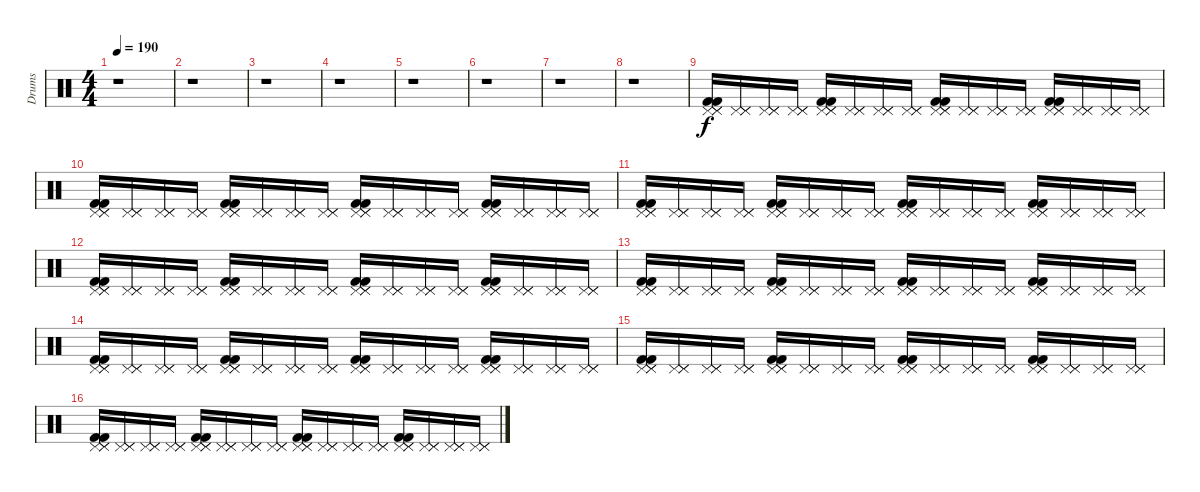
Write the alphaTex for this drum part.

\track ("Drums" "Drums") {instrument percussion}
\staff {score}
\articulation defaults
\ts (4 4)
\tempo 190
\clef neutral
\ks c
r.1{dy f volume 16} |
r.1 |
r.1 |
r.1 |
r.1 |
r.1 |
r.1 |
r.1 |
("Pedal Hi-Hat (hit)" "Pedal Hi-Hat (hit)" "Pedal Hi-Hat (hit)" "Kick (hit) 2" "Kick (hit) 2").16 ("Pedal Hi-Hat (hit)" "Pedal Hi-Hat (hit)" "Pedal Hi-Hat (hit)").16 ("Pedal Hi-Hat (hit)" "Pedal Hi-Hat (hit)" "Pedal Hi-Hat (hit)").16 ("Pedal Hi-Hat (hit)" "Pedal Hi-Hat (hit)" "Pedal Hi-Hat (hit)").16 ("Pedal Hi-Hat (hit)" "Pedal Hi-Hat (hit)" "Pedal Hi-Hat (hit)" "Kick (hit) 2" "Kick (hit) 2").16 ("Pedal Hi-Hat (hit)" "Pedal Hi-Hat (hit)" "Pedal Hi-Hat (hit)").16 ("Pedal Hi-Hat (hit)" "Pedal Hi-Hat (hit)" "Pedal Hi-Hat (hit)").16 ("Pedal Hi-Hat (hit)" "Pedal Hi-Hat (hit)" "Pedal Hi-Hat (hit)").16 ("Pedal Hi-Hat (hit)" "Pedal Hi-Hat (hit)" "Pedal Hi-Hat (hit)" "Kick (hit) 2" "Kick (hit) 2").16 ("Pedal Hi-Hat (hit)" "Pedal Hi-Hat (hit)" "Pedal Hi-Hat (hit)").16 ("Pedal Hi-Hat (hit)" "Pedal Hi-Hat (hit)" "Pedal Hi-Hat (hit)").16 ("Pedal Hi-Hat (hit)" "Pedal Hi-Hat (hit)" "Pedal Hi-Hat (hit)").16 ("Pedal Hi-Hat (hit)" "Pedal Hi-Hat (hit)" "Pedal Hi-Hat (hit)" "Kick (hit) 2" "Kick (hit) 2").16 ("Pedal Hi-Hat (hit)" "Pedal Hi-Hat (hit)" "Pedal Hi-Hat (hit)").16 ("Pedal Hi-Hat (hit)" "Pedal Hi-Hat (hit)" "Pedal Hi-Hat (hit)").16 ("Pedal Hi-Hat (hit)" "Pedal Hi-Hat (hit)" "Pedal Hi-Hat (hit)").16 |
("Pedal Hi-Hat (hit)" "Pedal Hi-Hat (hit)" "Pedal Hi-Hat (hit)" "Kick (hit) 2" "Kick (hit) 2").16 ("Pedal Hi-Hat (hit)" "Pedal Hi-Hat (hit)" "Pedal Hi-Hat (hit)").16 ("Pedal Hi-Hat (hit)" "Pedal Hi-Hat (hit)" "Pedal Hi-Hat (hit)").16 ("Pedal Hi-Hat (hit)" "Pedal Hi-Hat (hit)" "Pedal Hi-Hat (hit)").16 ("Pedal Hi-Hat (hit)" "Pedal Hi-Hat (hit)" "Pedal Hi-Hat (hit)" "Kick (hit) 2" "Kick (hit) 2").16 ("Pedal Hi-Hat (hit)" "Pedal Hi-Hat (hit)" "Pedal Hi-Hat (hit)").16 ("Pedal Hi-Hat (hit)" "Pedal Hi-Hat (hit)" "Pedal Hi-Hat (hit)").16 ("Pedal Hi-Hat (hit)" "Pedal Hi-Hat (hit)" "Pedal Hi-Hat (hit)").16 ("Pedal Hi-Hat (hit)" "Pedal Hi-Hat (hit)" "Pedal Hi-Hat (hit)" "Kick (hit) 2" "Kick (hit) 2").16 ("Pedal Hi-Hat (hit)" "Pedal Hi-Hat (hit)" "Pedal Hi-Hat (hit)").16 ("Pedal Hi-Hat (hit)" "Pedal Hi-Hat (hit)" "Pedal Hi-Hat (hit)").16 ("Pedal Hi-Hat (hit)" "Pedal Hi-Hat (hit)" "Pedal Hi-Hat (hit)").16 ("Pedal Hi-Hat (hit)" "Pedal Hi-Hat (hit)" "Pedal Hi-Hat (hit)" "Kick (hit) 2" "Kick (hit) 2").16 ("Pedal Hi-Hat (hit)" "Pedal Hi-Hat (hit)" "Pedal Hi-Hat (hit)").16 ("Pedal Hi-Hat (hit)" "Pedal Hi-Hat (hit)" "Pedal Hi-Hat (hit)").16 ("Pedal Hi-Hat (hit)" "Pedal Hi-Hat (hit)" "Pedal Hi-Hat (hit)").16 |
("Pedal Hi-Hat (hit)" "Pedal Hi-Hat (hit)" "Pedal Hi-Hat (hit)" "Kick (hit) 2" "Kick (hit) 2").16 ("Pedal Hi-Hat (hit)" "Pedal Hi-Hat (hit)" "Pedal Hi-Hat (hit)").16 ("Pedal Hi-Hat (hit)" "Pedal Hi-Hat (hit)" "Pedal Hi-Hat (hit)").16 ("Pedal Hi-Hat (hit)" "Pedal Hi-Hat (hit)" "Pedal Hi-Hat (hit)").16 ("Pedal Hi-Hat (hit)" "Pedal Hi-Hat (hit)" "Pedal Hi-Hat (hit)" "Kick (hit) 2" "Kick (hit) 2").16 ("Pedal Hi-Hat (hit)" "Pedal Hi-Hat (hit)" "Pedal Hi-Hat (hit)").16 ("Pedal Hi-Hat (hit)" "Pedal Hi-Hat (hit)" "Pedal Hi-Hat (hit)").16 ("Pedal Hi-Hat (hit)" "Pedal Hi-Hat (hit)" "Pedal Hi-Hat (hit)").16 ("Pedal Hi-Hat (hit)" "Pedal Hi-Hat (hit)" "Pedal Hi-Hat (hit)" "Kick (hit) 2" "Kick (hit) 2").16 ("Pedal Hi-Hat (hit)" "Pedal Hi-Hat (hit)" "Pedal Hi-Hat (hit)").16 ("Pedal Hi-Hat (hit)" "Pedal Hi-Hat (hit)" "Pedal Hi-Hat (hit)").16 ("Pedal Hi-Hat (hit)" "Pedal Hi-Hat (hit)" "Pedal Hi-Hat (hit)").16 ("Pedal Hi-Hat (hit)" "Pedal Hi-Hat (hit)" "Pedal Hi-Hat (hit)" "Kick (hit) 2" "Kick (hit) 2").16 ("Pedal Hi-Hat (hit)" "Pedal Hi-Hat (hit)" "Pedal Hi-Hat (hit)").16 ("Pedal Hi-Hat (hit)" "Pedal Hi-Hat (hit)" "Pedal Hi-Hat (hit)").16 ("Pedal Hi-Hat (hit)" "Pedal Hi-Hat (hit)" "Pedal Hi-Hat (hit)").16 |
("Pedal Hi-Hat (hit)" "Pedal Hi-Hat (hit)" "Pedal Hi-Hat (hit)" "Kick (hit) 2" "Kick (hit) 2").16 ("Pedal Hi-Hat (hit)" "Pedal Hi-Hat (hit)" "Pedal Hi-Hat (hit)").16 ("Pedal Hi-Hat (hit)" "Pedal Hi-Hat (hit)" "Pedal Hi-Hat (hit)").16 ("Pedal Hi-Hat (hit)" "Pedal Hi-Hat (hit)" "Pedal Hi-Hat (hit)").16 ("Pedal Hi-Hat (hit)" "Pedal Hi-Hat (hit)" "Pedal Hi-Hat (hit)" "Kick (hit) 2" "Kick (hit) 2").16 ("Pedal Hi-Hat (hit)" "Pedal Hi-Hat (hit)" "Pedal Hi-Hat (hit)").16 ("Pedal Hi-Hat (hit)" "Pedal Hi-Hat (hit)" "Pedal Hi-Hat (hit)").16 ("Pedal Hi-Hat (hit)" "Pedal Hi-Hat (hit)" "Pedal Hi-Hat (hit)").16 ("Pedal Hi-Hat (hit)" "Pedal Hi-Hat (hit)" "Pedal Hi-Hat (hit)" "Kick (hit) 2" "Kick (hit) 2").16 ("Pedal Hi-Hat (hit)" "Pedal Hi-Hat (hit)" "Pedal Hi-Hat (hit)").16 ("Pedal Hi-Hat (hit)" "Pedal Hi-Hat (hit)" "Pedal Hi-Hat (hit)").16 ("Pedal Hi-Hat (hit)" "Pedal Hi-Hat (hit)" "Pedal Hi-Hat (hit)").16 ("Pedal Hi-Hat (hit)" "Pedal Hi-Hat (hit)" "Pedal Hi-Hat (hit)" "Kick (hit) 2" "Kick (hit) 2").16 ("Pedal Hi-Hat (hit)" "Pedal Hi-Hat (hit)" "Pedal Hi-Hat (hit)").16 ("Pedal Hi-Hat (hit)" "Pedal Hi-Hat (hit)" "Pedal Hi-Hat (hit)").16 ("Pedal Hi-Hat (hit)" "Pedal Hi-Hat (hit)" "Pedal Hi-Hat (hit)").16 |
("Pedal Hi-Hat (hit)" "Pedal Hi-Hat (hit)" "Pedal Hi-Hat (hit)" "Kick (hit) 2" "Kick (hit) 2").16 ("Pedal Hi-Hat (hit)" "Pedal Hi-Hat (hit)" "Pedal Hi-Hat (hit)").16 ("Pedal Hi-Hat (hit)" "Pedal Hi-Hat (hit)" "Pedal Hi-Hat (hit)").16 ("Pedal Hi-Hat (hit)" "Pedal Hi-Hat (hit)" "Pedal Hi-Hat (hit)").16 ("Pedal Hi-Hat (hit)" "Pedal Hi-Hat (hit)" "Pedal Hi-Hat (hit)" "Kick (hit) 2" "Kick (hit) 2").16 ("Pedal Hi-Hat (hit)" "Pedal Hi-Hat (hit)" "Pedal Hi-Hat (hit)").16 ("Pedal Hi-Hat (hit)" "Pedal Hi-Hat (hit)" "Pedal Hi-Hat (hit)").16 ("Pedal Hi-Hat (hit)" "Pedal Hi-Hat (hit)" "Pedal Hi-Hat (hit)").16 ("Pedal Hi-Hat (hit)" "Pedal Hi-Hat (hit)" "Pedal Hi-Hat (hit)" "Kick (hit) 2" "Kick (hit) 2").16 ("Pedal Hi-Hat (hit)" "Pedal Hi-Hat (hit)" "Pedal Hi-Hat (hit)").16 ("Pedal Hi-Hat (hit)" "Pedal Hi-Hat (hit)" "Pedal Hi-Hat (hit)").16 ("Pedal Hi-Hat (hit)" "Pedal Hi-Hat (hit)" "Pedal Hi-Hat (hit)").16 ("Pedal Hi-Hat (hit)" "Pedal Hi-Hat (hit)" "Pedal Hi-Hat (hit)" "Kick (hit) 2" "Kick (hit) 2").16 ("Pedal Hi-Hat (hit)" "Pedal Hi-Hat (hit)" "Pedal Hi-Hat (hit)").16 ("Pedal Hi-Hat (hit)" "Pedal Hi-Hat (hit)" "Pedal Hi-Hat (hit)").16 ("Pedal Hi-Hat (hit)" "Pedal Hi-Hat (hit)" "Pedal Hi-Hat (hit)").16 |
("Pedal Hi-Hat (hit)" "Pedal Hi-Hat (hit)" "Pedal Hi-Hat (hit)" "Kick (hit) 2" "Kick (hit) 2").16 ("Pedal Hi-Hat (hit)" "Pedal Hi-Hat (hit)" "Pedal Hi-Hat (hit)").16 ("Pedal Hi-Hat (hit)" "Pedal Hi-Hat (hit)" "Pedal Hi-Hat (hit)").16 ("Pedal Hi-Hat (hit)" "Pedal Hi-Hat (hit)" "Pedal Hi-Hat (hit)").16 ("Pedal Hi-Hat (hit)" "Pedal Hi-Hat (hit)" "Pedal Hi-Hat (hit)" "Kick (hit) 2" "Kick (hit) 2").16 ("Pedal Hi-Hat (hit)" "Pedal Hi-Hat (hit)" "Pedal Hi-Hat (hit)").16 ("Pedal Hi-Hat (hit)" "Pedal Hi-Hat (hit)" "Pedal Hi-Hat (hit)").16 ("Pedal Hi-Hat (hit)" "Pedal Hi-Hat (hit)" "Pedal Hi-Hat (hit)").16 ("Pedal Hi-Hat (hit)" "Pedal Hi-Hat (hit)" "Pedal Hi-Hat (hit)" "Kick (hit) 2" "Kick (hit) 2").16 ("Pedal Hi-Hat (hit)" "Pedal Hi-Hat (hit)" "Pedal Hi-Hat (hit)").16 ("Pedal Hi-Hat (hit)" "Pedal Hi-Hat (hit)" "Pedal Hi-Hat (hit)").16 ("Pedal Hi-Hat (hit)" "Pedal Hi-Hat (hit)" "Pedal Hi-Hat (hit)").16 ("Pedal Hi-Hat (hit)" "Pedal Hi-Hat (hit)" "Pedal Hi-Hat (hit)" "Kick (hit) 2" "Kick (hit) 2").16 ("Pedal Hi-Hat (hit)" "Pedal Hi-Hat (hit)" "Pedal Hi-Hat (hit)").16 ("Pedal Hi-Hat (hit)" "Pedal Hi-Hat (hit)" "Pedal Hi-Hat (hit)").16 ("Pedal Hi-Hat (hit)" "Pedal Hi-Hat (hit)" "Pedal Hi-Hat (hit)").16 |
("Pedal Hi-Hat (hit)" "Pedal Hi-Hat (hit)" "Pedal Hi-Hat (hit)" "Kick (hit) 2" "Kick (hit) 2").16 ("Pedal Hi-Hat (hit)" "Pedal Hi-Hat (hit)" "Pedal Hi-Hat (hit)").16 ("Pedal Hi-Hat (hit)" "Pedal Hi-Hat (hit)" "Pedal Hi-Hat (hit)").16 ("Pedal Hi-Hat (hit)" "Pedal Hi-Hat (hit)" "Pedal Hi-Hat (hit)").16 ("Pedal Hi-Hat (hit)" "Pedal Hi-Hat (hit)" "Pedal Hi-Hat (hit)" "Kick (hit) 2" "Kick (hit) 2").16 ("Pedal Hi-Hat (hit)" "Pedal Hi-Hat (hit)" "Pedal Hi-Hat (hit)").16 ("Pedal Hi-Hat (hit)" "Pedal Hi-Hat (hit)" "Pedal Hi-Hat (hit)").16 ("Pedal Hi-Hat (hit)" "Pedal Hi-Hat (hit)" "Pedal Hi-Hat (hit)").16 ("Pedal Hi-Hat (hit)" "Pedal Hi-Hat (hit)" "Pedal Hi-Hat (hit)" "Kick (hit) 2" "Kick (hit) 2").16 ("Pedal Hi-Hat (hit)" "Pedal Hi-Hat (hit)" "Pedal Hi-Hat (hit)").16 ("Pedal Hi-Hat (hit)" "Pedal Hi-Hat (hit)" "Pedal Hi-Hat (hit)").16 ("Pedal Hi-Hat (hit)" "Pedal Hi-Hat (hit)" "Pedal Hi-Hat (hit)").16 ("Pedal Hi-Hat (hit)" "Pedal Hi-Hat (hit)" "Pedal Hi-Hat (hit)" "Kick (hit) 2" "Kick (hit) 2").16 ("Pedal Hi-Hat (hit)" "Pedal Hi-Hat (hit)" "Pedal Hi-Hat (hit)").16 ("Pedal Hi-Hat (hit)" "Pedal Hi-Hat (hit)" "Pedal Hi-Hat (hit)").16 ("Pedal Hi-Hat (hit)" "Pedal Hi-Hat (hit)" "Pedal Hi-Hat (hit)").16 |
("Pedal Hi-Hat (hit)" "Pedal Hi-Hat (hit)" "Pedal Hi-Hat (hit)" "Kick (hit) 2" "Kick (hit) 2").16 ("Pedal Hi-Hat (hit)" "Pedal Hi-Hat (hit)" "Pedal Hi-Hat (hit)").16 ("Pedal Hi-Hat (hit)" "Pedal Hi-Hat (hit)" "Pedal Hi-Hat (hit)").16 ("Pedal Hi-Hat (hit)" "Pedal Hi-Hat (hit)" "Pedal Hi-Hat (hit)").16 ("Pedal Hi-Hat (hit)" "Pedal Hi-Hat (hit)" "Pedal Hi-Hat (hit)" "Kick (hit) 2" "Kick (hit) 2").16 ("Pedal Hi-Hat (hit)" "Pedal Hi-Hat (hit)" "Pedal Hi-Hat (hit)").16 ("Pedal Hi-Hat (hit)" "Pedal Hi-Hat (hit)" "Pedal Hi-Hat (hit)").16 ("Pedal Hi-Hat (hit)" "Pedal Hi-Hat (hit)" "Pedal Hi-Hat (hit)").16 ("Pedal Hi-Hat (hit)" "Pedal Hi-Hat (hit)" "Pedal Hi-Hat (hit)" "Kick (hit) 2" "Kick (hit) 2").16 ("Pedal Hi-Hat (hit)" "Pedal Hi-Hat (hit)" "Pedal Hi-Hat (hit)").16 ("Pedal Hi-Hat (hit)" "Pedal Hi-Hat (hit)" "Pedal Hi-Hat (hit)").16 ("Pedal Hi-Hat (hit)" "Pedal Hi-Hat (hit)" "Pedal Hi-Hat (hit)").16 ("Pedal Hi-Hat (hit)" "Pedal Hi-Hat (hit)" "Pedal Hi-Hat (hit)" "Kick (hit) 2" "Kick (hit) 2").16 ("Pedal Hi-Hat (hit)" "Pedal Hi-Hat (hit)" "Pedal Hi-Hat (hit)").16 ("Pedal Hi-Hat (hit)" "Pedal Hi-Hat (hit)" "Pedal Hi-Hat (hit)").16 ("Pedal Hi-Hat (hit)" "Pedal Hi-Hat (hit)" "Pedal Hi-Hat (hit)").16
